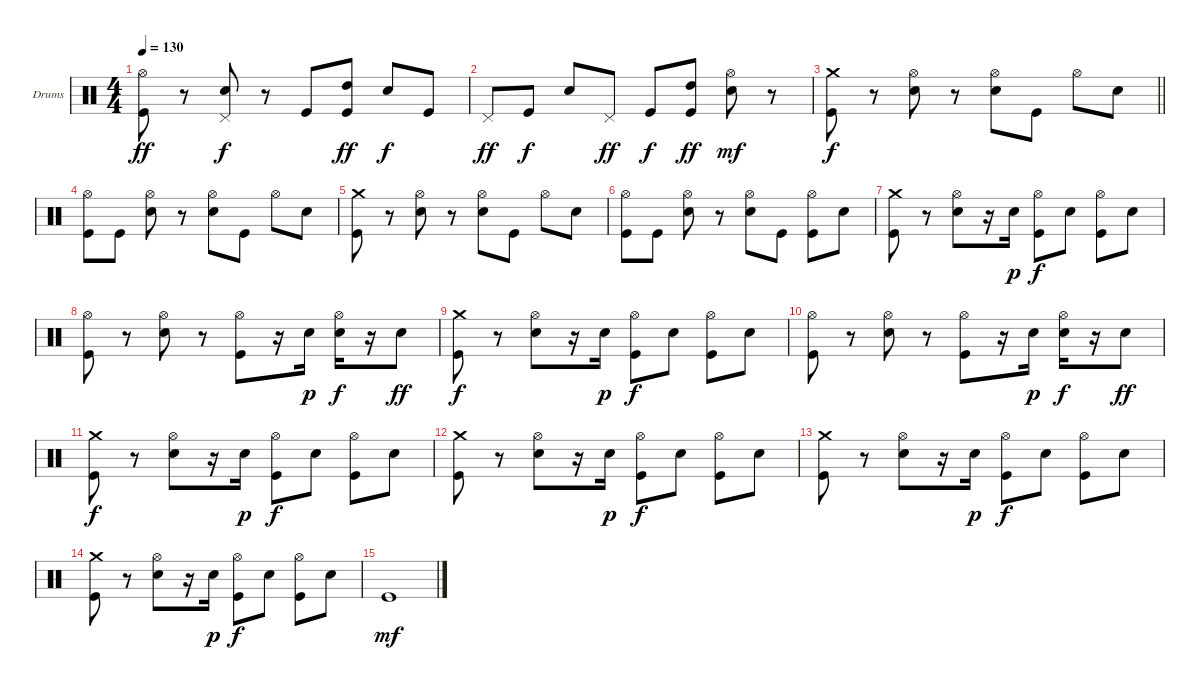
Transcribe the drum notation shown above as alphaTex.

\bracketExtendMode groupsimilarinstruments
\firstSystemTrackNameOrientation horizontal
\otherSystemsTrackNameOrientation horizontal
\track ("Drumkit" "Drums") {instrument percussion}
\staff {score}
\articulation defaults
\ts (4 4)
\tempo 130
\clef neutral
\ks c
("Hi-Hat (open)" "Kick (hit)").8{dy ff} r.8 ("Pedal Hi-Hat (hit)" "Snare (hit) 2").8{dy f} r.8 "Kick (hit)".8 ("High Tom (hit)" "Kick (hit)").8{dy ff} "Snare (hit) 2".8{dy f} "Kick (hit)".8 |
"Pedal Hi-Hat (hit)".8{dy ff} "Kick (hit)".8{dy f} "Snare (hit) 2".8 "Pedal Hi-Hat (hit)".8{dy ff} "Kick (hit)".8{dy f} ("High Tom (hit)" "Kick (hit)").8{dy ff} ("Hi-Hat (open)" "Snare (hit) 2").8{dy mf} r.8 |
\barLineRight lightlight
("Crash medium (hit)" "Kick (hit)").8{dy f} r.8 ("Hi-Hat (open)" "Snare (hit) 2").8 r.8 ("Hi-Hat (open)" "Snare (hit) 2").8 "Kick (hit)".8 "Hi-Hat (open)".8 "Snare (hit) 2".8 |
("Hi-Hat (open)" "Kick (hit)").8 "Kick (hit)".8 ("Hi-Hat (open)" "Snare (hit) 2").8 r.8 ("Hi-Hat (open)" "Snare (hit) 2").8 "Kick (hit)".8 "Hi-Hat (open)".8 "Snare (hit) 2".8 |
("Crash medium (hit)" "Kick (hit)").8 r.8 ("Hi-Hat (open)" "Snare (hit) 2").8 r.8 ("Hi-Hat (open)" "Snare (hit) 2").8 "Kick (hit)".8 "Hi-Hat (open)".8 "Snare (hit) 2".8 |
("Hi-Hat (open)" "Kick (hit)").8 "Kick (hit)".8 ("Hi-Hat (open)" "Snare (hit) 2").8 r.8 ("Hi-Hat (open)" "Snare (hit) 2").8 "Kick (hit)".8 ("Hi-Hat (open)" "Kick (hit)").8 "Snare (hit) 2".8 |
("Crash medium (hit)" "Kick (hit)").8 r.8 ("Hi-Hat (open)" "Snare (hit) 2").8 r.16 "Snare (hit) 2".16{dy p} ("Hi-Hat (open)" "Kick (hit)").8{dy f} "Snare (hit) 2".8 ("Hi-Hat (open)" "Kick (hit)").8 "Snare (hit) 2".8 |
("Hi-Hat (open)" "Kick (hit)").8 r.8 ("Hi-Hat (open)" "Snare (hit) 2").8 r.8 ("Hi-Hat (open)" "Kick (hit)").8 r.16 "Snare (hit) 2".16{dy p} ("Hi-Hat (open)" "Snare (hit) 2").16{dy f} r.16 "Snare (hit) 2".8{dy ff} |
("Crash medium (hit)" "Kick (hit)").8{dy f} r.8 ("Hi-Hat (open)" "Snare (hit) 2").8 r.16 "Snare (hit) 2".16{dy p} ("Hi-Hat (open)" "Kick (hit)").8{dy f} "Snare (hit) 2".8 ("Hi-Hat (open)" "Kick (hit)").8 "Snare (hit) 2".8 |
("Hi-Hat (open)" "Kick (hit)").8 r.8 ("Hi-Hat (open)" "Snare (hit) 2").8 r.8 ("Hi-Hat (open)" "Kick (hit)").8 r.16 "Snare (hit) 2".16{dy p} ("Hi-Hat (open)" "Snare (hit) 2").16{dy f} r.16 "Snare (hit) 2".8{dy ff} |
("Crash medium (hit)" "Kick (hit)").8{dy f} r.8 ("Hi-Hat (open)" "Snare (hit) 2").8 r.16 "Snare (hit) 2".16{dy p} ("Hi-Hat (open)" "Kick (hit)").8{dy f} "Snare (hit) 2".8 ("Hi-Hat (open)" "Kick (hit)").8 "Snare (hit) 2".8 |
("Crash medium (hit)" "Kick (hit)").8 r.8 ("Hi-Hat (open)" "Snare (hit) 2").8 r.16 "Snare (hit) 2".16{dy p} ("Hi-Hat (open)" "Kick (hit)").8{dy f} "Snare (hit) 2".8 ("Hi-Hat (open)" "Kick (hit)").8 "Snare (hit) 2".8 |
("Crash medium (hit)" "Kick (hit)").8 r.8 ("Hi-Hat (open)" "Snare (hit) 2").8 r.16 "Snare (hit) 2".16{dy p} ("Hi-Hat (open)" "Kick (hit)").8{dy f} "Snare (hit) 2".8 ("Hi-Hat (open)" "Kick (hit)").8 "Snare (hit) 2".8 |
("Crash medium (hit)" "Kick (hit)").8 r.8 ("Hi-Hat (open)" "Snare (hit) 2").8 r.16 "Snare (hit) 2".16{dy p} ("Hi-Hat (open)" "Kick (hit)").8{dy f} "Snare (hit) 2".8 ("Hi-Hat (open)" "Kick (hit)").8 "Snare (hit) 2".8 |
"Kick (hit)".1{dy mf}
